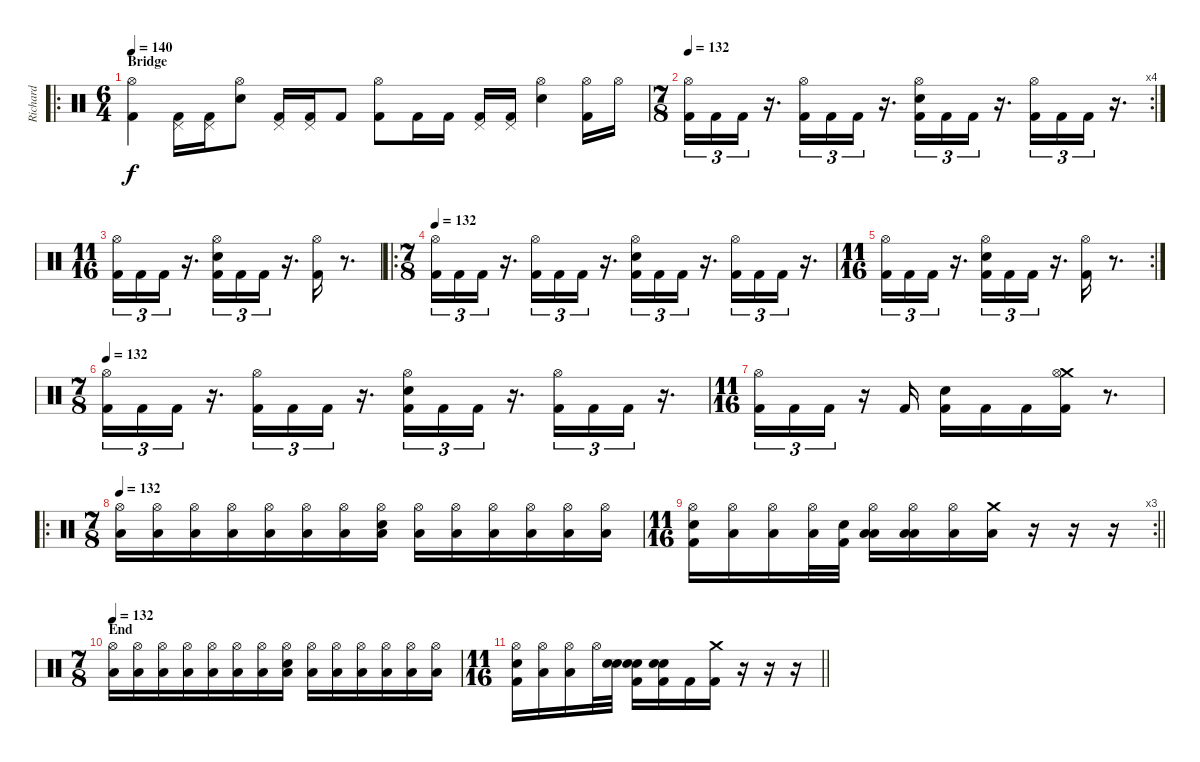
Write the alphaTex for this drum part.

\track ("Richard" "Richard") {instrument percussion}
\staff {score}
\articulation defaults
\ro
\ts (6 4)
\section ("" "Bridge")
\tempo 140
\clef neutral
\ks c
("Hi-Hat (open)" "Kick (hit) 2").4{dy f} ("Pedal Hi-Hat (hit)" "Kick (hit) 2").16 ("Pedal Hi-Hat (hit)" "Kick (hit) 2").16 ("Hi-Hat (open)" "Electric Snare (hit)").8 ("Pedal Hi-Hat (hit)" "Kick (hit) 2").16 ("Pedal Hi-Hat (hit)" "Kick (hit) 2").16 "Kick (hit) 2".8 ("Hi-Hat (open)" "Kick (hit) 2").8 "Kick (hit) 2".16 "Kick (hit) 2".16 ("Pedal Hi-Hat (hit)" "Kick (hit) 2").16 ("Pedal Hi-Hat (hit)" "Kick (hit) 2").16 ("Hi-Hat (open)" "Electric Snare (hit)").4 ("Hi-Hat (open)" "Kick (hit) 2").16 "Hi-Hat (open)".16 |
\rc 4
\ts (7 8)
\tempo 132
("Hi-Hat (open)" "Kick (hit) 2").16{tu (3 2)} "Kick (hit) 2".16{tu (3 2)} "Kick (hit) 2".16{tu (3 2)} r.16{d} ("Hi-Hat (open)" "Kick (hit) 2").16{tu (3 2)} "Kick (hit) 2".16{tu (3 2)} "Kick (hit) 2".16{tu (3 2)} r.16{d} ("Hi-Hat (open)" "Electric Snare (hit)" "Kick (hit) 2").16{tu (3 2)} "Kick (hit) 2".16{tu (3 2)} "Kick (hit) 2".16{tu (3 2)} r.16{d} ("Hi-Hat (open)" "Kick (hit) 2").16{tu (3 2)} "Kick (hit) 2".16{tu (3 2)} "Kick (hit) 2".16{tu (3 2)} r.16{d} |
\ts (11 16)
("Hi-Hat (open)" "Kick (hit) 2").16{tu (3 2)} "Kick (hit) 2".16{tu (3 2)} "Kick (hit) 2".16{tu (3 2)} r.16{d} ("Electric Snare (hit)" "Hi-Hat (open)" "Kick (hit) 2").16{tu (3 2)} "Kick (hit) 2".16{tu (3 2)} "Kick (hit) 2".16{tu (3 2)} r.16{d} ("Hi-Hat (open)" "Kick (hit) 2").16 r.8{d} |
\ro
\ts (7 8)
\tempo 132
("Hi-Hat (open)" "Kick (hit) 2").16{tu (3 2)} "Kick (hit) 2".16{tu (3 2)} "Kick (hit) 2".16{tu (3 2)} r.16{d} ("Hi-Hat (open)" "Kick (hit) 2").16{tu (3 2)} "Kick (hit) 2".16{tu (3 2)} "Kick (hit) 2".16{tu (3 2)} r.16{d} ("Hi-Hat (open)" "Electric Snare (hit)" "Kick (hit) 2").16{tu (3 2)} "Kick (hit) 2".16{tu (3 2)} "Kick (hit) 2".16{tu (3 2)} r.16{d} ("Hi-Hat (open)" "Kick (hit) 2").16{tu (3 2)} "Kick (hit) 2".16{tu (3 2)} "Kick (hit) 2".16{tu (3 2)} r.16{d} |
\rc 2
\ts (11 16)
("Hi-Hat (open)" "Kick (hit) 2").16{tu (3 2)} "Kick (hit) 2".16{tu (3 2)} "Kick (hit) 2".16{tu (3 2)} r.16{d} ("Electric Snare (hit)" "Hi-Hat (open)" "Kick (hit) 2").16{tu (3 2)} "Kick (hit) 2".16{tu (3 2)} "Kick (hit) 2".16{tu (3 2)} r.16{d} ("Hi-Hat (open)" "Kick (hit) 2").16 r.8{d} |
\ts (7 8)
\tempo 132
("Hi-Hat (open)" "Kick (hit) 2").16{tu (3 2)} "Kick (hit) 2".16{tu (3 2)} "Kick (hit) 2".16{tu (3 2)} r.16{d} ("Hi-Hat (open)" "Kick (hit) 2").16{tu (3 2)} "Kick (hit) 2".16{tu (3 2)} "Kick (hit) 2".16{tu (3 2)} r.16{d} ("Hi-Hat (open)" "Electric Snare (hit)" "Kick (hit) 2").16{tu (3 2)} "Kick (hit) 2".16{tu (3 2)} "Kick (hit) 2".16{tu (3 2)} r.16{d} ("Hi-Hat (open)" "Kick (hit) 2").16{tu (3 2)} "Kick (hit) 2".16{tu (3 2)} "Kick (hit) 2".16{tu (3 2)} r.16{d} |
\ts (11 16)
("Hi-Hat (open)" "Kick (hit) 2").16{tu (3 2)} "Kick (hit) 2".16{tu (3 2)} "Kick (hit) 2".16{tu (3 2)} r.16 "Kick (hit) 2".16 ("Electric Snare (hit)" "Kick (hit) 2").16 "Kick (hit) 2".16 "Kick (hit) 2".16 ("Crash medium (hit)" "Hi-Hat (open)" "Kick (hit) 2").16 r.8{d} |
\ro
\ts (7 8)
\tempo 132
("Hi-Hat (open)" "Low Floor Tom (hit)").16 ("Hi-Hat (open)" "Low Floor Tom (hit)").16 ("Hi-Hat (open)" "Low Floor Tom (hit)").16 ("Hi-Hat (open)" "Low Floor Tom (hit)").16 ("Hi-Hat (open)" "Low Floor Tom (hit)").16 ("Hi-Hat (open)" "Low Floor Tom (hit)").16 ("Hi-Hat (open)" "Low Floor Tom (hit)").16 ("Hi-Hat (open)" "Electric Snare (hit)" "Low Floor Tom (hit)").16 ("Hi-Hat (open)" "Low Floor Tom (hit)").16 ("Hi-Hat (open)" "Low Floor Tom (hit)").16 ("Hi-Hat (open)" "Low Floor Tom (hit)").16 ("Hi-Hat (open)" "Low Floor Tom (hit)").16 ("Hi-Hat (open)" "Low Floor Tom (hit)").16 ("Hi-Hat (open)" "Low Floor Tom (hit)").16 |
\rc 3
\ts (11 16)
\barLineRight lightlight
("Hi-Hat (open)" "Electric Snare (hit)" "Kick (hit) 2").16 ("Hi-Hat (open)" "Low Floor Tom (hit)").16 ("Hi-Hat (open)" "Low Floor Tom (hit)").16 ("Hi-Hat (open)" "Low Floor Tom (hit)").32 ("Kick (hit) 2" "Electric Snare (hit)").32 ("Hi-Hat (open)" "Low Tom (hit)" "Low Floor Tom (hit)").16 ("Hi-Hat (open)" "Low Tom (hit)" "Low Floor Tom (hit)").16 ("Hi-Hat (open)" "Low Floor Tom (hit)").16 ("Crash medium (hit)" "Low Floor Tom (hit)").16 r.16 r.16 r.16 |
\ts (7 8)
\section ("" "End")
\tempo 132
("Hi-Hat (open)" "Low Floor Tom (hit)").16 ("Hi-Hat (open)" "Low Floor Tom (hit)").16 ("Hi-Hat (open)" "Low Floor Tom (hit)").16 ("Hi-Hat (open)" "Low Floor Tom (hit)").16 ("Hi-Hat (open)" "Low Floor Tom (hit)").16 ("Hi-Hat (open)" "Low Floor Tom (hit)").16 ("Hi-Hat (open)" "Low Floor Tom (hit)").16 ("Hi-Hat (open)" "Electric Snare (hit)" "Low Floor Tom (hit)").16 ("Hi-Hat (open)" "Low Floor Tom (hit)").16 ("Hi-Hat (open)" "Low Floor Tom (hit)").16 ("Hi-Hat (open)" "Low Floor Tom (hit)").16 ("Hi-Hat (open)" "Low Floor Tom (hit)").16 ("Hi-Hat (open)" "Low Floor Tom (hit)").16 ("Hi-Hat (open)" "Low Floor Tom (hit)").16 |
\ts (11 16)
\barLineRight lightlight
("Hi-Hat (open)" "Electric Snare (hit)" "Kick (hit) 2").16 ("Hi-Hat (open)" "Low Floor Tom (hit)").16 ("Hi-Hat (open)" "Low Floor Tom (hit)").16 "Hi-Hat (open)".32 ("Snare (hit) 2" "Electric Snare (hit)").32 ("Electric Snare (hit)" "Snare (hit) 2" "Kick (hit) 2").16 ("Snare (hit) 2" "Electric Snare (hit)" "Kick (hit) 2").16 "Kick (hit) 2".16 ("Crash medium (hit)" "Kick (hit) 2").16 r.16 r.16 r.16
